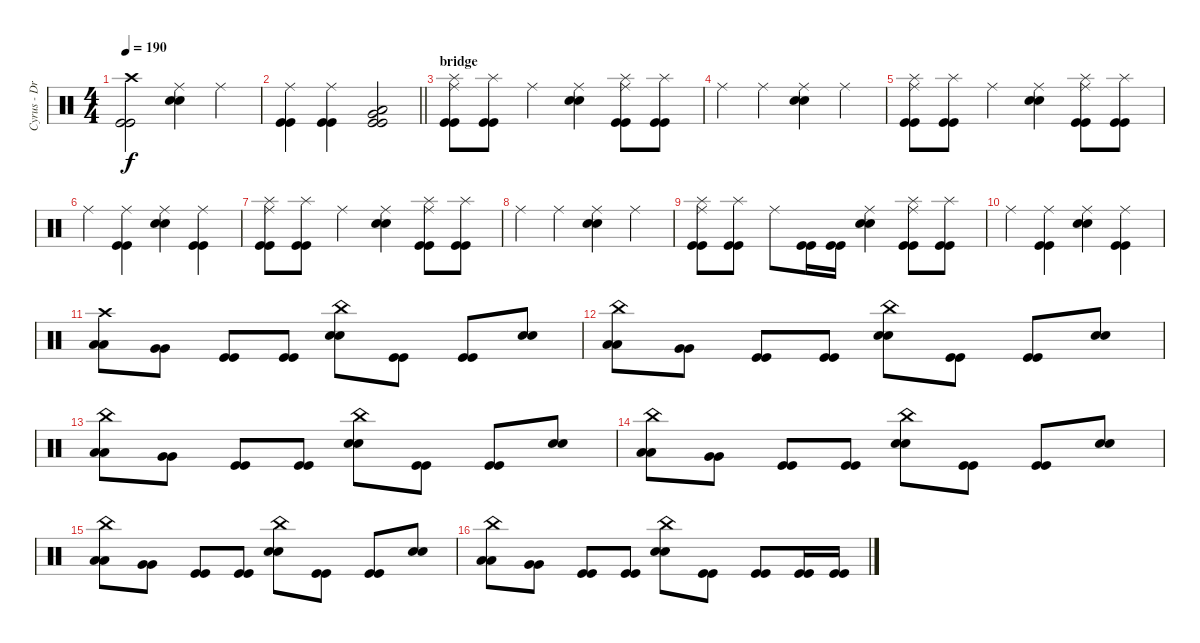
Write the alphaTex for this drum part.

\track ("Cyrus - Drums" "Cyrus - Dr") {instrument percussion}
\staff {score}
\articulation defaults
\ts (4 4)
\tempo 190
\clef neutral
\ks c
("Kick (hit)" "Kick (hit)" "Crash high (hit)").2{dy f} ("Snare (hit) 2" "Snare (hit) 2" "Ride (middle)").4 "Ride (middle)".4 |
\barLineRight lightlight
("Kick (hit)" "Kick (hit)" "Ride (middle)").4 ("Kick (hit)" "Kick (hit)" "Ride (middle)").4 ("Kick (hit)" "Kick (hit)" "Very Low Tom (hit)" "Low Tom (hit)").2 |
\section ("" "bridge")
("Kick (hit)" "Kick (hit)" "Ride (middle)" "Splash (hit)").8 ("Kick (hit)" "Kick (hit)" "Splash (hit)").8 "Ride (middle)".4 ("Snare (hit) 2" "Snare (hit) 2" "Ride (middle)").4 ("Kick (hit)" "Kick (hit)" "Ride (middle)" "Splash (hit)").8 ("Kick (hit)" "Kick (hit)" "Splash (hit)").8 |
"Ride (middle)".4 "Ride (middle)".4 ("Snare (hit) 2" "Snare (hit) 2" "Ride (middle)").4 "Ride (middle)".4 |
("Kick (hit)" "Kick (hit)" "Ride (middle)" "Splash (hit)").8 ("Kick (hit)" "Kick (hit)" "Splash (hit)").8 "Ride (middle)".4 ("Snare (hit) 2" "Snare (hit) 2" "Ride (middle)").4 ("Kick (hit)" "Kick (hit)" "Ride (middle)" "Splash (hit)").8 ("Kick (hit)" "Kick (hit)" "Splash (hit)").8 |
"Ride (middle)".4 ("Kick (hit)" "Kick (hit)" "Ride (middle)").4 ("Snare (hit) 2" "Snare (hit) 2" "Ride (middle)").4 ("Kick (hit)" "Kick (hit)" "Ride (middle)").4 |
("Kick (hit)" "Kick (hit)" "Ride (middle)" "Splash (hit)").8 ("Kick (hit)" "Kick (hit)" "Splash (hit)").8 "Ride (middle)".4 ("Snare (hit) 2" "Snare (hit) 2" "Ride (middle)").4 ("Kick (hit)" "Kick (hit)" "Ride (middle)" "Splash (hit)").8 ("Kick (hit)" "Kick (hit)" "Splash (hit)").8 |
"Ride (middle)".4 "Ride (middle)".4 ("Snare (hit) 2" "Snare (hit) 2" "Ride (middle)").4 "Ride (middle)".4 |
("Kick (hit)" "Kick (hit)" "Ride (middle)" "Splash (hit)").8 ("Kick (hit)" "Kick (hit)" "Splash (hit)").8 "Ride (middle)".8 ("Kick (hit)" "Kick (hit)").16 ("Kick (hit)" "Kick (hit)").16 ("Snare (hit) 2" "Snare (hit) 2" "Ride (middle)").4 ("Kick (hit)" "Kick (hit)" "Ride (middle)" "Splash (hit)").8 ("Kick (hit)" "Kick (hit)" "Splash (hit)").8 |
"Ride (middle)".4 ("Kick (hit)" "Kick (hit)" "Ride (middle)").4 ("Snare (hit) 2" "Snare (hit) 2" "Ride (middle)").4 ("Kick (hit)" "Kick (hit)" "Ride (middle)").4 |
("Low Tom (hit)" "Low Tom (hit)" "Crash high (hit)").8 ("Very Low Tom (hit)" "Very Low Tom (hit)").8 ("Kick (hit)" "Kick (hit)").8 ("Kick (hit)" "Kick (hit)").8 ("Snare (hit) 2" "Snare (hit) 2" "China (hit)").8 ("Kick (hit)" "Kick (hit)").8 ("Kick (hit)" "Kick (hit)").8 ("Snare (hit) 2" "Snare (hit) 2").8 |
("Low Tom (hit)" "Low Tom (hit)" "China (hit)").8 ("Very Low Tom (hit)" "Very Low Tom (hit)").8 ("Kick (hit)" "Kick (hit)").8 ("Kick (hit)" "Kick (hit)").8 ("Snare (hit) 2" "Snare (hit) 2" "China (hit)").8 ("Kick (hit)" "Kick (hit)").8 ("Kick (hit)" "Kick (hit)").8 ("Snare (hit) 2" "Snare (hit) 2").8 |
("Low Tom (hit)" "Low Tom (hit)" "China (hit)").8 ("Very Low Tom (hit)" "Very Low Tom (hit)").8 ("Kick (hit)" "Kick (hit)").8 ("Kick (hit)" "Kick (hit)").8 ("Snare (hit) 2" "Snare (hit) 2" "China (hit)").8 ("Kick (hit)" "Kick (hit)").8 ("Kick (hit)" "Kick (hit)").8 ("Snare (hit) 2" "Snare (hit) 2").8 |
("Low Tom (hit)" "Low Tom (hit)" "China (hit)").8 ("Very Low Tom (hit)" "Very Low Tom (hit)").8 ("Kick (hit)" "Kick (hit)").8 ("Kick (hit)" "Kick (hit)").8 ("Snare (hit) 2" "Snare (hit) 2" "China (hit)").8 ("Kick (hit)" "Kick (hit)").8 ("Kick (hit)" "Kick (hit)").8 ("Snare (hit) 2" "Snare (hit) 2").8 |
("Low Tom (hit)" "Low Tom (hit)" "China (hit)").8 ("Very Low Tom (hit)" "Very Low Tom (hit)").8 ("Kick (hit)" "Kick (hit)").8 ("Kick (hit)" "Kick (hit)").8 ("Snare (hit) 2" "Snare (hit) 2" "China (hit)").8 ("Kick (hit)" "Kick (hit)").8 ("Kick (hit)" "Kick (hit)").8 ("Snare (hit) 2" "Snare (hit) 2").8 |
("Low Tom (hit)" "Low Tom (hit)" "China (hit)").8 ("Very Low Tom (hit)" "Very Low Tom (hit)").8 ("Kick (hit)" "Kick (hit)").8 ("Kick (hit)" "Kick (hit)").8 ("Snare (hit) 2" "Snare (hit) 2" "China (hit)").8 ("Kick (hit)" "Kick (hit)").8 ("Kick (hit)" "Kick (hit)").8 ("Kick (hit)" "Kick (hit)").16 ("Kick (hit)" "Kick (hit)").16
